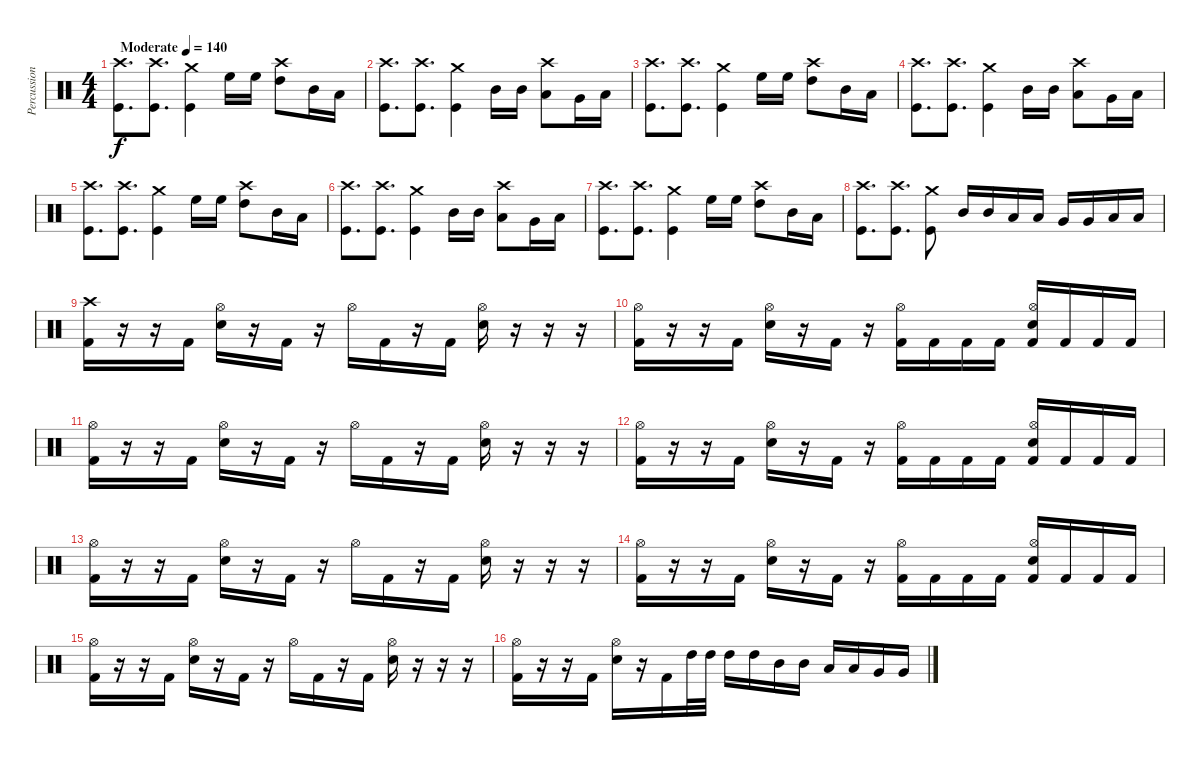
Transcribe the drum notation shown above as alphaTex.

\track ("Percussion" "Percussion") {instrument percussion}
\staff {score}
\articulation defaults
\ts (4 4)
\tempo (140 "Moderate")
\clef neutral
\ks c
("Crash high (hit)" "Kick (hit)").8{d dy f} ("Crash high (hit)" "Kick (hit)").8{d} ("Crash medium (hit)" "Kick (hit)").4 "High Floor Tom (hit)".16 "High Floor Tom (hit)".16 ("Crash high (hit)" "High Tom (hit)").8 "Mid Tom (hit)".16 "Low Tom (hit)".16 |
("Crash high (hit)" "Kick (hit)").8{d} ("Crash high (hit)" "Kick (hit)").8{d} ("Crash medium (hit)" "Kick (hit)").4 "Mid Tom (hit)".16 "Mid Tom (hit)".16 ("Crash high (hit)" "Low Tom (hit)").8 "Very Low Tom (hit)".16 "Low Floor Tom (hit)".16 |
("Crash high (hit)" "Kick (hit)").8{d} ("Crash high (hit)" "Kick (hit)").8{d} ("Crash medium (hit)" "Kick (hit)").4 "High Floor Tom (hit)".16 "High Floor Tom (hit)".16 ("Crash high (hit)" "High Tom (hit)").8 "Mid Tom (hit)".16 "Low Tom (hit)".16 |
("Crash high (hit)" "Kick (hit)").8{d} ("Crash high (hit)" "Kick (hit)").8{d} ("Crash medium (hit)" "Kick (hit)").4 "Mid Tom (hit)".16 "Mid Tom (hit)".16 ("Crash high (hit)" "Low Tom (hit)").8 "Very Low Tom (hit)".16 "Low Floor Tom (hit)".16 |
("Crash high (hit)" "Kick (hit)").8{d} ("Crash high (hit)" "Kick (hit)").8{d} ("Crash medium (hit)" "Kick (hit)").4 "High Floor Tom (hit)".16 "High Floor Tom (hit)".16 ("Crash high (hit)" "High Tom (hit)").8 "Mid Tom (hit)".16 "Low Tom (hit)".16 |
("Crash high (hit)" "Kick (hit)").8{d} ("Crash high (hit)" "Kick (hit)").8{d} ("Crash medium (hit)" "Kick (hit)").4 "Mid Tom (hit)".16 "Mid Tom (hit)".16 ("Crash high (hit)" "Low Tom (hit)").8 "Very Low Tom (hit)".16 "Low Floor Tom (hit)".16 |
("Crash high (hit)" "Kick (hit)").8{d} ("Crash high (hit)" "Kick (hit)").8{d} ("Crash medium (hit)" "Kick (hit)").4 "High Floor Tom (hit)".16 "High Floor Tom (hit)".16 ("Crash high (hit)" "High Tom (hit)").8 "Mid Tom (hit)".16 "Low Tom (hit)".16 |
("Crash high (hit)" "Kick (hit)").8{d} ("Crash high (hit)" "Kick (hit)").8{d} ("Crash medium (hit)" "Kick (hit)").8 "Mid Tom (hit)".16 "Mid Tom (hit)".16 "Low Tom (hit)".16 "Low Tom (hit)".16 "Very Low Tom (hit)".16 "Very Low Tom (hit)".16 "Low Floor Tom (hit)".16 "Low Floor Tom (hit)".16 |
("Crash high (hit)" "Kick (hit) 2").16 r.16 r.16 "Kick (hit) 2".16 ("Hi-Hat (open)" "Snare (hit) 2").16 r.16 "Kick (hit) 2".16 r.16 "Hi-Hat (open)".16 "Kick (hit) 2".16 r.16 "Kick (hit) 2".16 ("Hi-Hat (open)" "Snare (hit) 2").16 r.16 r.16 r.16 |
("Hi-Hat (open)" "Kick (hit) 2").16 r.16 r.16 "Kick (hit) 2".16 ("Hi-Hat (open)" "Snare (hit) 2").16 r.16 "Kick (hit) 2".16 r.16 ("Hi-Hat (open)" "Kick (hit) 2").16 "Kick (hit) 2".16 "Kick (hit) 2".16 "Kick (hit) 2".16 ("Hi-Hat (open)" "Snare (hit) 2" "Kick (hit) 2").16 "Kick (hit) 2".16 "Kick (hit) 2".16 "Kick (hit) 2".16 |
("Hi-Hat (open)" "Kick (hit) 2").16 r.16 r.16 "Kick (hit) 2".16 ("Hi-Hat (open)" "Snare (hit) 2").16 r.16 "Kick (hit) 2".16 r.16 "Hi-Hat (open)".16 "Kick (hit) 2".16 r.16 "Kick (hit) 2".16 ("Hi-Hat (open)" "Snare (hit) 2").16 r.16 r.16 r.16 |
("Hi-Hat (open)" "Kick (hit) 2").16 r.16 r.16 "Kick (hit) 2".16 ("Hi-Hat (open)" "Snare (hit) 2").16 r.16 "Kick (hit) 2".16 r.16 ("Hi-Hat (open)" "Kick (hit) 2").16 "Kick (hit) 2".16 "Kick (hit) 2".16 "Kick (hit) 2".16 ("Hi-Hat (open)" "Snare (hit) 2" "Kick (hit) 2").16 "Kick (hit) 2".16 "Kick (hit) 2".16 "Kick (hit) 2".16 |
("Hi-Hat (open)" "Kick (hit) 2").16 r.16 r.16 "Kick (hit) 2".16 ("Hi-Hat (open)" "Snare (hit) 2").16 r.16 "Kick (hit) 2".16 r.16 "Hi-Hat (open)".16 "Kick (hit) 2".16 r.16 "Kick (hit) 2".16 ("Hi-Hat (open)" "Snare (hit) 2").16 r.16 r.16 r.16 |
("Hi-Hat (open)" "Kick (hit) 2").16 r.16 r.16 "Kick (hit) 2".16 ("Hi-Hat (open)" "Snare (hit) 2").16 r.16 "Kick (hit) 2".16 r.16 ("Hi-Hat (open)" "Kick (hit) 2").16 "Kick (hit) 2".16 "Kick (hit) 2".16 "Kick (hit) 2".16 ("Hi-Hat (open)" "Snare (hit) 2" "Kick (hit) 2").16 "Kick (hit) 2".16 "Kick (hit) 2".16 "Kick (hit) 2".16 |
("Hi-Hat (open)" "Kick (hit) 2").16 r.16 r.16 "Kick (hit) 2".16 ("Hi-Hat (open)" "Snare (hit) 2").16 r.16 "Kick (hit) 2".16 r.16 "Hi-Hat (open)".16 "Kick (hit) 2".16 r.16 "Kick (hit) 2".16 ("Hi-Hat (open)" "Snare (hit) 2").16 r.16 r.16 r.16 |
("Hi-Hat (open)" "Kick (hit) 2").16 r.16 r.16 "Kick (hit) 2".16 ("Hi-Hat (open)" "Snare (hit) 2").16 r.16 "Kick (hit) 2".16 "High Tom (hit)".32 "High Tom (hit)".32 "High Tom (hit)".16 "High Tom (hit)".16 "Mid Tom (hit)".16 "Mid Tom (hit)".16 "Low Tom (hit)".16 "Low Tom (hit)".16 "Very Low Tom (hit)".16 "Very Low Tom (hit)".16
